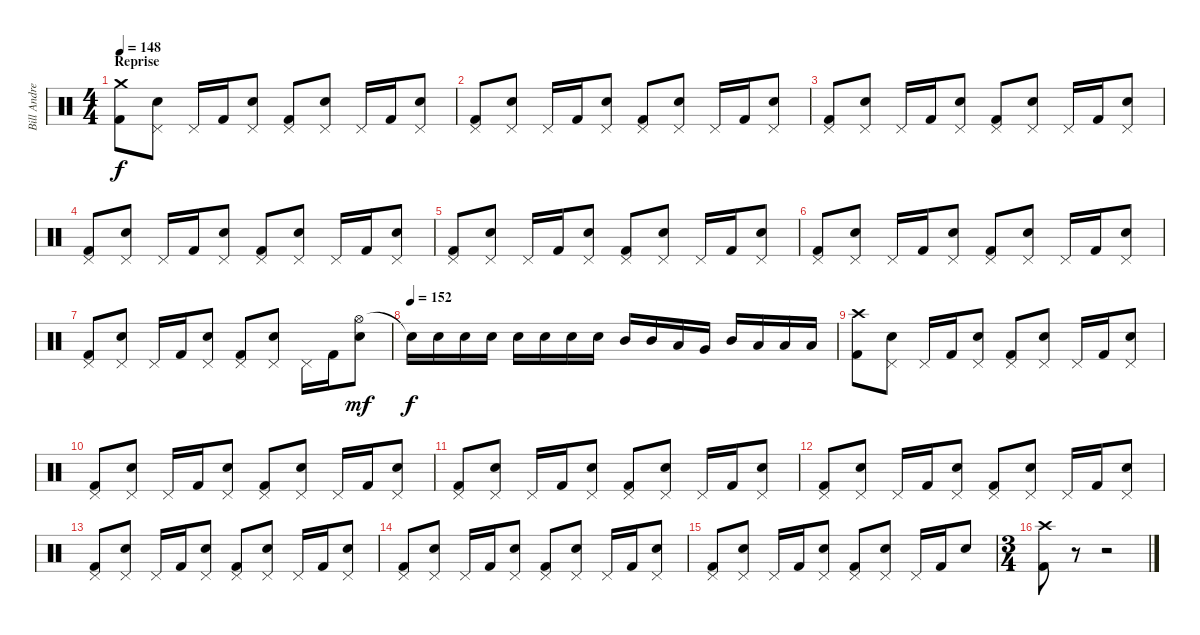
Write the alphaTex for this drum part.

\track ("Bill Andrews" "Bill Andre") {instrument percussion}
\staff {score}
\articulation defaults
\ts (4 4)
\section ("" "Reprise")
\tempo 148
\clef neutral
\ks c
("Kick (hit) 2" "Crash medium (hit)").8{dy f} ("Pedal Hi-Hat (hit)" "Snare (hit) 2").8 "Pedal Hi-Hat (hit)".16 "Kick (hit) 2".16 ("Pedal Hi-Hat (hit)" "Snare (hit) 2").8 ("Kick (hit) 2" "Pedal Hi-Hat (hit)").8 ("Pedal Hi-Hat (hit)" "Snare (hit) 2").8 "Pedal Hi-Hat (hit)".16 "Kick (hit) 2".16 ("Pedal Hi-Hat (hit)" "Snare (hit) 2").8 |
("Kick (hit) 2" "Pedal Hi-Hat (hit)").8 ("Pedal Hi-Hat (hit)" "Snare (hit) 2").8 "Pedal Hi-Hat (hit)".16 "Kick (hit) 2".16 ("Pedal Hi-Hat (hit)" "Snare (hit) 2").8 ("Kick (hit) 2" "Pedal Hi-Hat (hit)").8 ("Pedal Hi-Hat (hit)" "Snare (hit) 2").8 "Pedal Hi-Hat (hit)".16 "Kick (hit) 2".16 ("Pedal Hi-Hat (hit)" "Snare (hit) 2").8 |
("Kick (hit) 2" "Pedal Hi-Hat (hit)").8 ("Pedal Hi-Hat (hit)" "Snare (hit) 2").8 "Pedal Hi-Hat (hit)".16 "Kick (hit) 2".16 ("Pedal Hi-Hat (hit)" "Snare (hit) 2").8 ("Kick (hit) 2" "Pedal Hi-Hat (hit)").8 ("Pedal Hi-Hat (hit)" "Snare (hit) 2").8 "Pedal Hi-Hat (hit)".16 "Kick (hit) 2".16 ("Pedal Hi-Hat (hit)" "Snare (hit) 2").8 |
("Kick (hit) 2" "Pedal Hi-Hat (hit)").8 ("Pedal Hi-Hat (hit)" "Snare (hit) 2").8 "Pedal Hi-Hat (hit)".16 "Kick (hit) 2".16 ("Pedal Hi-Hat (hit)" "Snare (hit) 2").8 ("Kick (hit) 2" "Pedal Hi-Hat (hit)").8 ("Pedal Hi-Hat (hit)" "Snare (hit) 2").8 "Pedal Hi-Hat (hit)".16 "Kick (hit) 2".16 ("Pedal Hi-Hat (hit)" "Snare (hit) 2").8 |
("Kick (hit) 2" "Pedal Hi-Hat (hit)").8 ("Pedal Hi-Hat (hit)" "Snare (hit) 2").8 "Pedal Hi-Hat (hit)".16 "Kick (hit) 2".16 ("Pedal Hi-Hat (hit)" "Snare (hit) 2").8 ("Kick (hit) 2" "Pedal Hi-Hat (hit)").8 ("Pedal Hi-Hat (hit)" "Snare (hit) 2").8 "Pedal Hi-Hat (hit)".16 "Kick (hit) 2".16 ("Pedal Hi-Hat (hit)" "Snare (hit) 2").8 |
("Kick (hit) 2" "Pedal Hi-Hat (hit)").8 ("Pedal Hi-Hat (hit)" "Snare (hit) 2").8 "Pedal Hi-Hat (hit)".16 "Kick (hit) 2".16 ("Pedal Hi-Hat (hit)" "Snare (hit) 2").8 ("Kick (hit) 2" "Pedal Hi-Hat (hit)").8 ("Pedal Hi-Hat (hit)" "Snare (hit) 2").8 "Pedal Hi-Hat (hit)".16 "Kick (hit) 2".16 ("Pedal Hi-Hat (hit)" "Snare (hit) 2").8 |
("Kick (hit) 2" "Pedal Hi-Hat (hit)").8 ("Pedal Hi-Hat (hit)" "Snare (hit) 2").8 "Pedal Hi-Hat (hit)".16 "Kick (hit) 2".16 ("Pedal Hi-Hat (hit)" "Snare (hit) 2").8 ("Kick (hit) 2" "Pedal Hi-Hat (hit)").8 ("Pedal Hi-Hat (hit)" "Snare (hit) 2").8 "Pedal Hi-Hat (hit)".16 "Kick (hit) 2".16 ("Hi-Hat (open)" "Snare (hit) 2").8{dy mf} |
\tempo (152)
"Snare (hit)"{t}.16{dy f} "Snare (hit) 2".16 "Snare (hit) 2".16 "Snare (hit) 2".16 "Snare (hit) 2".16 "Snare (hit) 2".16 "Snare (hit) 2".16 "Snare (hit) 2".16 "Mid Tom (hit)".16 "Mid Tom (hit)".16 "Low Tom (hit)".16 "Very Low Tom (hit)".16 "Mid Tom (hit)".16 "Low Tom (hit)".16 "Low Floor Tom (hit)".16 "Low Tom (hit)".16 |
("Kick (hit) 2" "Crash high (hit)").8 ("Pedal Hi-Hat (hit)" "Snare (hit) 2").8 "Pedal Hi-Hat (hit)".16 "Kick (hit) 2".16 ("Pedal Hi-Hat (hit)" "Snare (hit) 2").8 ("Kick (hit) 2" "Pedal Hi-Hat (hit)").8 ("Pedal Hi-Hat (hit)" "Snare (hit) 2").8 "Pedal Hi-Hat (hit)".16 "Kick (hit) 2".16 ("Pedal Hi-Hat (hit)" "Snare (hit) 2").8 |
("Kick (hit) 2" "Pedal Hi-Hat (hit)").8 ("Pedal Hi-Hat (hit)" "Snare (hit) 2").8 "Pedal Hi-Hat (hit)".16 "Kick (hit) 2".16 ("Pedal Hi-Hat (hit)" "Snare (hit) 2").8 ("Kick (hit) 2" "Pedal Hi-Hat (hit)").8 ("Pedal Hi-Hat (hit)" "Snare (hit) 2").8 "Pedal Hi-Hat (hit)".16 "Kick (hit) 2".16 ("Pedal Hi-Hat (hit)" "Snare (hit) 2").8 |
("Kick (hit) 2" "Pedal Hi-Hat (hit)").8 ("Pedal Hi-Hat (hit)" "Snare (hit) 2").8 "Pedal Hi-Hat (hit)".16 "Kick (hit) 2".16 ("Pedal Hi-Hat (hit)" "Snare (hit) 2").8 ("Kick (hit) 2" "Pedal Hi-Hat (hit)").8 ("Pedal Hi-Hat (hit)" "Snare (hit) 2").8 "Pedal Hi-Hat (hit)".16 "Kick (hit) 2".16 ("Pedal Hi-Hat (hit)" "Snare (hit) 2").8 |
("Kick (hit) 2" "Pedal Hi-Hat (hit)").8 ("Pedal Hi-Hat (hit)" "Snare (hit) 2").8 "Pedal Hi-Hat (hit)".16 "Kick (hit) 2".16 ("Pedal Hi-Hat (hit)" "Snare (hit) 2").8 ("Kick (hit) 2" "Pedal Hi-Hat (hit)").8 ("Pedal Hi-Hat (hit)" "Snare (hit) 2").8 "Pedal Hi-Hat (hit)".16 "Kick (hit) 2".16 ("Pedal Hi-Hat (hit)" "Snare (hit) 2").8 |
("Kick (hit) 2" "Pedal Hi-Hat (hit)").8 ("Pedal Hi-Hat (hit)" "Snare (hit) 2").8 "Pedal Hi-Hat (hit)".16 "Kick (hit) 2".16 ("Pedal Hi-Hat (hit)" "Snare (hit) 2").8 ("Kick (hit) 2" "Pedal Hi-Hat (hit)").8 ("Pedal Hi-Hat (hit)" "Snare (hit) 2").8 "Pedal Hi-Hat (hit)".16 "Kick (hit) 2".16 ("Pedal Hi-Hat (hit)" "Snare (hit) 2").8 |
("Kick (hit) 2" "Pedal Hi-Hat (hit)").8 ("Pedal Hi-Hat (hit)" "Snare (hit) 2").8 "Pedal Hi-Hat (hit)".16 "Kick (hit) 2".16 ("Pedal Hi-Hat (hit)" "Snare (hit) 2").8 ("Kick (hit) 2" "Pedal Hi-Hat (hit)").8 ("Pedal Hi-Hat (hit)" "Snare (hit) 2").8 "Pedal Hi-Hat (hit)".16 "Kick (hit) 2".16 ("Pedal Hi-Hat (hit)" "Snare (hit) 2").8 |
("Kick (hit) 2" "Pedal Hi-Hat (hit)").8 ("Pedal Hi-Hat (hit)" "Snare (hit) 2").8 "Pedal Hi-Hat (hit)".16 "Kick (hit) 2".16 ("Pedal Hi-Hat (hit)" "Snare (hit) 2").8 ("Kick (hit) 2" "Pedal Hi-Hat (hit)").8 ("Pedal Hi-Hat (hit)" "Snare (hit) 2").8 "Pedal Hi-Hat (hit)".16 "Kick (hit) 2".16 "Snare (hit) 2".8 |
\ts (3 4)
("Kick (hit) 2" "Crash high (hit)").8 r.8 r.2
